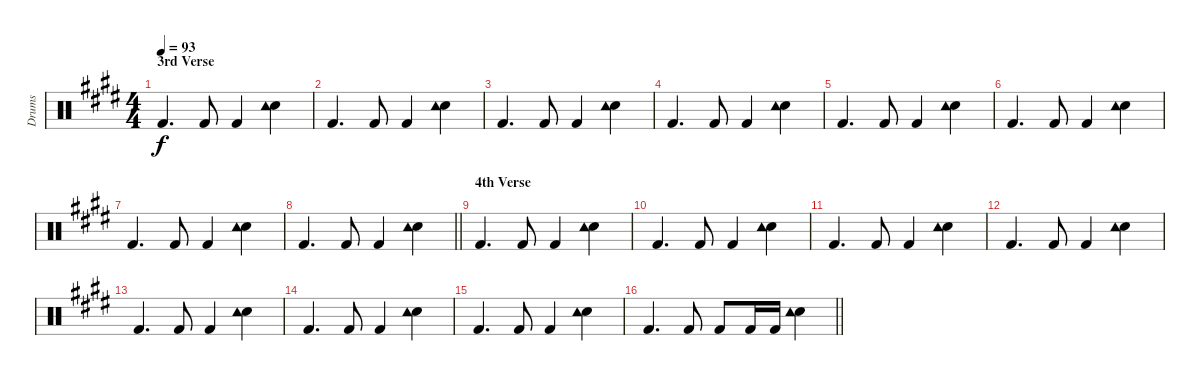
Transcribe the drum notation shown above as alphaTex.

\track ("Drums" "Drums") {instrument percussion}
\staff {score}
\articulation defaults
\ts (4 4)
\section ("" "3rd Verse")
\tempo 93
\clef neutral
\ks c#minor "Kick (hit) 2".4{d dy f} "Kick (hit) 2".8 "Kick (hit) 2".4
("Electric Snare (hit)" "Tambourine (hit)").4 |
"Kick (hit) 2".4{d} "Kick (hit) 2".8 "Kick (hit) 2".4 ("Electric Snare (hit)" "Tambourine (hit)").4 |
"Kick (hit) 2".4{d} "Kick (hit) 2".8 "Kick (hit) 2".4 ("Electric Snare (hit)" "Tambourine (hit)").4 |
"Kick (hit) 2".4{d} "Kick (hit) 2".8 "Kick (hit) 2".4 ("Electric Snare (hit)" "Tambourine (hit)").4 |
"Kick (hit) 2".4{d} "Kick (hit) 2".8 "Kick (hit) 2".4 ("Electric Snare (hit)" "Tambourine (hit)").4 |
"Kick (hit) 2".4{d} "Kick (hit) 2".8 "Kick (hit) 2".4 ("Electric Snare (hit)" "Tambourine (hit)").4 |
"Kick (hit) 2".4{d} "Kick (hit) 2".8 "Kick (hit) 2".4 ("Electric Snare (hit)" "Tambourine (hit)").4 |
\barLineRight lightlight "Kick (hit) 2".4{d} "Kick (hit) 2".8 "Kick (hit) 2".4
("Electric Snare (hit)" "Tambourine (hit)").4 |
\section ("" "4th Verse")
"Kick (hit) 2".4{d} "Kick (hit) 2".8 "Kick (hit) 2".4 ("Electric Snare (hit)" "Tambourine (hit)").4 |
"Kick (hit) 2".4{d} "Kick (hit) 2".8 "Kick (hit) 2".4 ("Electric Snare (hit)" "Tambourine (hit)").4 |
"Kick (hit) 2".4{d} "Kick (hit) 2".8 "Kick (hit) 2".4 ("Electric Snare (hit)" "Tambourine (hit)").4 |
"Kick (hit) 2".4{d} "Kick (hit) 2".8 "Kick (hit) 2".4 ("Electric Snare (hit)" "Tambourine (hit)").4 |
"Kick (hit) 2".4{d} "Kick (hit) 2".8 "Kick (hit) 2".4 ("Electric Snare (hit)" "Tambourine (hit)").4 |
"Kick (hit) 2".4{d} "Kick (hit) 2".8 "Kick (hit) 2".4 ("Electric Snare (hit)" "Tambourine (hit)").4 |
"Kick (hit) 2".4{d} "Kick (hit) 2".8 "Kick (hit) 2".4 ("Electric Snare (hit)" "Tambourine (hit)").4 |
\barLineRight lightlight "Kick (hit) 2".4{d} "Kick (hit) 2".8 "Kick (hit) 2".8 "Kick (hit) 2".16 "Kick (hit) 2".16
("Electric Snare (hit)" "Tambourine (hit)").4
